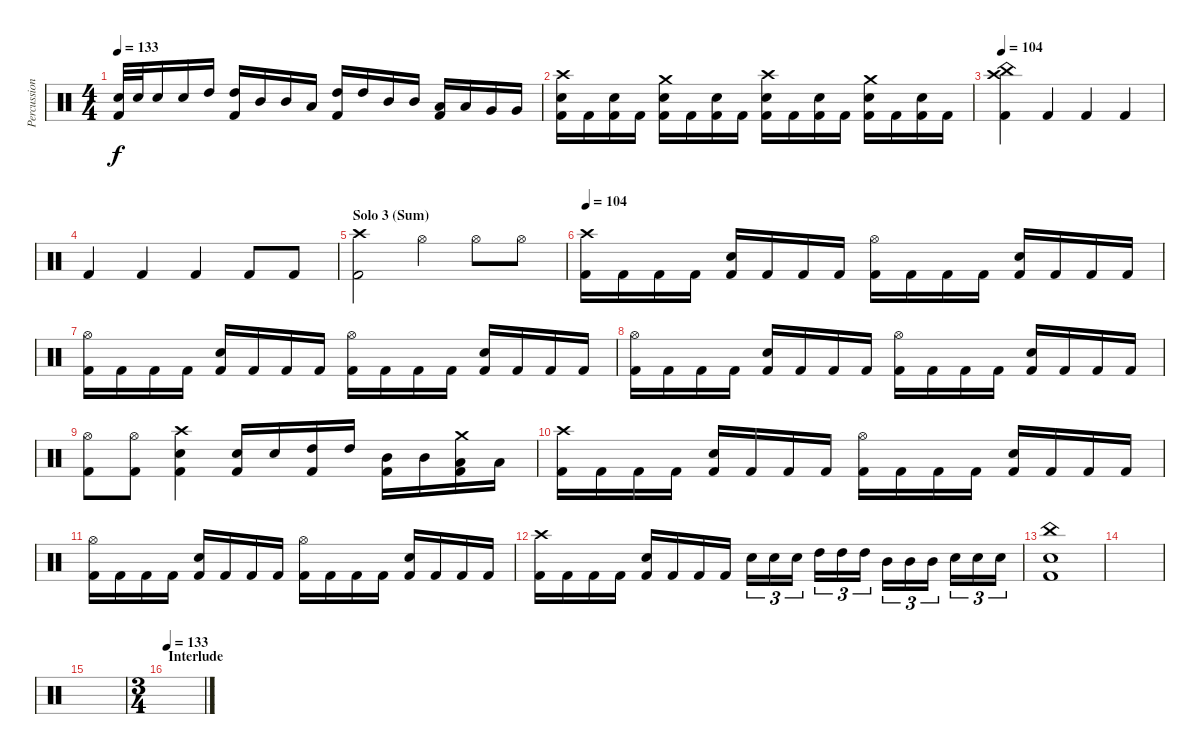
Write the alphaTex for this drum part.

\track ("Percussion" "Percussion") {instrument percussion}
\staff {score}
\articulation defaults
\ts (4 4)
\tempo 133
\clef neutral
\ks c
("Electric Snare (hit)" "Kick (hit) 2").32{dy f} "Electric Snare (hit)".32 "Electric Snare (hit)".16 "Electric Snare (hit)".16 "High Tom (hit)".16 ("High Tom (hit)" "Kick (hit) 2").16 "Mid Tom (hit)".16 "Mid Tom (hit)".16 "Low Tom (hit)".16 ("High Tom (hit)" "Kick (hit) 2").16 "High Tom (hit)".16 "Mid Tom (hit)".16 "Mid Tom (hit)".16 ("Low Tom (hit)" "Kick (hit) 2").16 "Low Tom (hit)".16 "Very Low Tom (hit)".16 "Very Low Tom (hit)".16 |
("Crash high (hit)" "Electric Snare (hit)" "Kick (hit) 2").16 "Kick (hit) 2".16 ("Electric Snare (hit)" "Kick (hit) 2").16 "Kick (hit) 2".16 ("Crash medium (hit)" "Electric Snare (hit)" "Kick (hit) 2").16 "Kick (hit) 2".16 ("Electric Snare (hit)" "Kick (hit) 2").16 "Kick (hit) 2".16 ("Crash high (hit)" "Electric Snare (hit)" "Kick (hit) 2").16 "Kick (hit) 2".16 ("Electric Snare (hit)" "Kick (hit) 2").16 "Kick (hit) 2".16 ("Crash medium (hit)" "Electric Snare (hit)" "Kick (hit) 2").16 "Kick (hit) 2".16 ("Electric Snare (hit)" "Kick (hit) 2").16 "Kick (hit) 2".16 |
\tempo 104
("Crash high (hit)" "China (hit)" "Kick (hit) 2").4 "Kick (hit) 2".4 "Kick (hit) 2".4 "Kick (hit) 2".4 |
"Kick (hit) 2".4 "Kick (hit) 2".4 "Kick (hit) 2".4 "Kick (hit) 2".8 "Kick (hit) 2".8 |
\section ("" "Solo 3 (Sum) ")
("Crash high (hit)" "Kick (hit) 2").2 "Hi-Hat (open)".4 "Hi-Hat (open)".8 "Hi-Hat (open)".8 |
\tempo 104
("Crash high (hit)" "Kick (hit) 2").16 "Kick (hit) 2".16 "Kick (hit) 2".16 "Kick (hit) 2".16 ("Electric Snare (hit)" "Kick (hit) 2").16 "Kick (hit) 2".16 "Kick (hit) 2".16 "Kick (hit) 2".16 ("Hi-Hat (open)" "Kick (hit) 2").16 "Kick (hit) 2".16 "Kick (hit) 2".16 "Kick (hit) 2".16 ("Electric Snare (hit)" "Kick (hit) 2").16 "Kick (hit) 2".16 "Kick (hit) 2".16 "Kick (hit) 2".16 |
("Hi-Hat (open)" "Kick (hit) 2").16 "Kick (hit) 2".16 "Kick (hit) 2".16 "Kick (hit) 2".16 ("Electric Snare (hit)" "Kick (hit) 2").16 "Kick (hit) 2".16 "Kick (hit) 2".16 "Kick (hit) 2".16 ("Hi-Hat (open)" "Kick (hit) 2").16 "Kick (hit) 2".16 "Kick (hit) 2".16 "Kick (hit) 2".16 ("Electric Snare (hit)" "Kick (hit) 2").16 "Kick (hit) 2".16 "Kick (hit) 2".16 "Kick (hit) 2".16 |
("Hi-Hat (open)" "Kick (hit) 2").16 "Kick (hit) 2".16 "Kick (hit) 2".16 "Kick (hit) 2".16 ("Electric Snare (hit)" "Kick (hit) 2").16 "Kick (hit) 2".16 "Kick (hit) 2".16 "Kick (hit) 2".16 ("Hi-Hat (open)" "Kick (hit) 2").16 "Kick (hit) 2".16 "Kick (hit) 2".16 "Kick (hit) 2".16 ("Electric Snare (hit)" "Kick (hit) 2").16 "Kick (hit) 2".16 "Kick (hit) 2".16 "Kick (hit) 2".16 |
("Hi-Hat (open)" "Kick (hit) 2").8 ("Hi-Hat (open)" "Kick (hit) 2").8 ("Crash high (hit)" "Electric Snare (hit)" "Kick (hit) 2").4 ("Electric Snare (hit)" "Kick (hit) 2").16 "Electric Snare (hit)".16 ("High Tom (hit)" "Kick (hit) 2").16 "High Tom (hit)".16 ("Mid Tom (hit)" "Kick (hit) 2").16 "Mid Tom (hit)".16 ("Crash medium (hit)" "Low Tom (hit)" "Kick (hit) 2").16 "Low Tom (hit)".16 |
("Crash high (hit)" "Kick (hit) 2").16 "Kick (hit) 2".16 "Kick (hit) 2".16 "Kick (hit) 2".16 ("Electric Snare (hit)" "Kick (hit) 2").16 "Kick (hit) 2".16 "Kick (hit) 2".16 "Kick (hit) 2".16 ("Hi-Hat (open)" "Kick (hit) 2").16 "Kick (hit) 2".16 "Kick (hit) 2".16 "Kick (hit) 2".16 ("Electric Snare (hit)" "Kick (hit) 2").16 "Kick (hit) 2".16 "Kick (hit) 2".16 "Kick (hit) 2".16 |
("Hi-Hat (open)" "Kick (hit) 2").16 "Kick (hit) 2".16 "Kick (hit) 2".16 "Kick (hit) 2".16 ("Electric Snare (hit)" "Kick (hit) 2").16 "Kick (hit) 2".16 "Kick (hit) 2".16 "Kick (hit) 2".16 ("Hi-Hat (open)" "Kick (hit) 2").16 "Kick (hit) 2".16 "Kick (hit) 2".16 "Kick (hit) 2".16 ("Electric Snare (hit)" "Kick (hit) 2").16 "Kick (hit) 2".16 "Kick (hit) 2".16 "Kick (hit) 2".16 |
("Crash high (hit)" "Kick (hit) 2").16 "Kick (hit) 2".16 "Kick (hit) 2".16 "Kick (hit) 2".16 ("Electric Snare (hit)" "Kick (hit) 2").16 "Kick (hit) 2".16 "Kick (hit) 2".16 "Kick (hit) 2".16 "Electric Snare (hit)".16{tu (3 2)} "Electric Snare (hit)".16{tu (3 2)} "Electric Snare (hit)".16{tu (3 2)} "High Tom (hit)".16{tu (3 2)} "High Tom (hit)".16{tu (3 2)} "High Tom (hit)".16{tu (3 2)} "Mid Tom (hit)".16{tu (3 2)} "Mid Tom (hit)".16{tu (3 2)} "Mid Tom (hit)".16{tu (3 2)} "Electric Snare (hit)".16{tu (3 2)} "Electric Snare (hit)".16{tu (3 2)} "Electric Snare (hit)".16{tu (3 2)} |
("China (hit)" "Electric Snare (hit)" "Kick (hit) 2").1 |
|
|
\ts (3 4)
\section ("" "Interlude ")
\tempo 133
